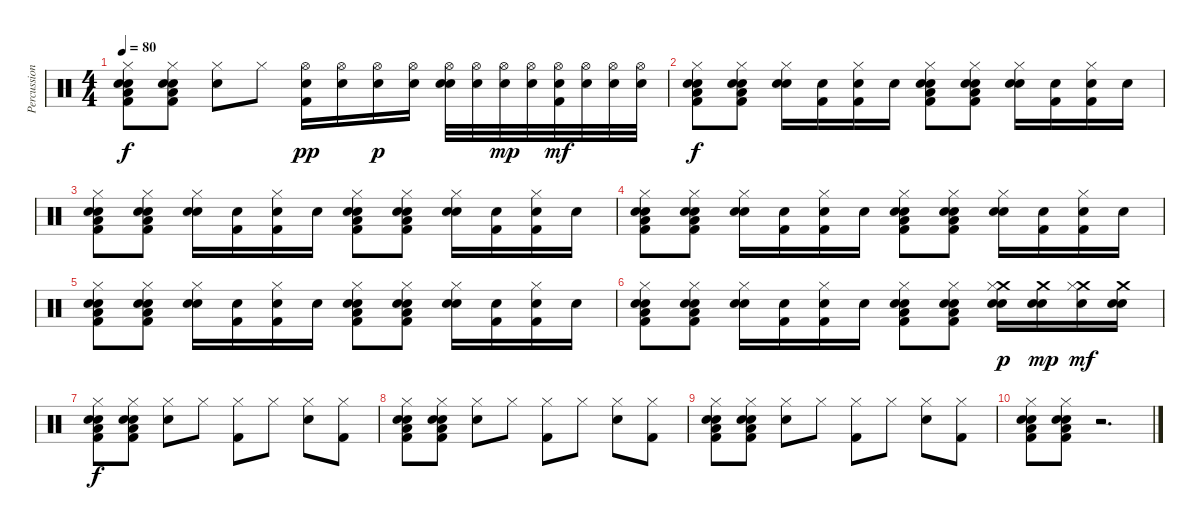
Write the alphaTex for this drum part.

\track ("Percussion" "Percussion") {instrument percussion}
\staff {score}
\articulation defaults
\ts (4 4)
\tempo 80
\clef neutral
\ks c
("Kick (hit) 2" "Low Floor Tom (hit)" "Electric Snare (hit)" "Hand Clap (hit)" "Hi-Hat (closed)").8{dy f} ("Kick (hit) 2" "Low Floor Tom (hit)" "Electric Snare (hit)" "Hand Clap (hit)" "Hi-Hat (closed)").8 ("Hand Clap (hit)" "Hi-Hat (closed)").8 "Hi-Hat (closed)".8 ("Kick (hit) 2" "Electric Snare (hit)" "Hi-Hat (open)").16{dy pp} ("Electric Snare (hit)" "Hi-Hat (open)").16 ("Electric Snare (hit)" "Hi-Hat (open)").16{dy p} ("Electric Snare (hit)" "Hi-Hat (open)").16 ("Hand Clap (hit)" "Electric Snare (hit)" "Hi-Hat (open)").32 ("Electric Snare (hit)" "Hi-Hat (open)").32 ("Electric Snare (hit)" "Hi-Hat (open)").32{dy mp} ("Electric Snare (hit)" "Hi-Hat (open)").32 ("Kick (hit) 2" "Electric Snare (hit)" "Hi-Hat (open)").32{dy mf} ("Electric Snare (hit)" "Hi-Hat (open)").32 ("Electric Snare (hit)" "Hi-Hat (open)").32 ("Electric Snare (hit)" "Hi-Hat (open)").32 |
("Kick (hit) 2" "Low Floor Tom (hit)" "Electric Snare (hit)" "Hand Clap (hit)" "Hi-Hat (closed)").8{dy f} ("Kick (hit) 2" "Low Floor Tom (hit)" "Electric Snare (hit)" "Hand Clap (hit)" "Hi-Hat (closed)").8 ("Hand Clap (hit)" "Snare (hit) 2" "Hi-Hat (closed)").16 ("Kick (hit) 2" "Hand Clap (hit)").16 ("Kick (hit) 2" "Electric Snare (hit)" "Hi-Hat (closed)").16 "Snare (hit) 2".16 ("Kick (hit) 2" "Low Floor Tom (hit)" "Electric Snare (hit)" "Hand Clap (hit)" "Hi-Hat (closed)").8 ("Kick (hit) 2" "Low Floor Tom (hit)" "Electric Snare (hit)" "Hand Clap (hit)" "Hi-Hat (closed)").8 ("Hand Clap (hit)" "Snare (hit) 2" "Hi-Hat (closed)").16 ("Kick (hit) 2" "Hand Clap (hit)").16 ("Kick (hit) 2" "Electric Snare (hit)" "Hi-Hat (closed)").16 "Snare (hit) 2".16 |
("Kick (hit) 2" "Low Floor Tom (hit)" "Electric Snare (hit)" "Hand Clap (hit)" "Hi-Hat (closed)").8 ("Kick (hit) 2" "Low Floor Tom (hit)" "Electric Snare (hit)" "Hand Clap (hit)" "Hi-Hat (closed)").8 ("Hand Clap (hit)" "Snare (hit) 2" "Hi-Hat (closed)").16 ("Kick (hit) 2" "Hand Clap (hit)").16 ("Kick (hit) 2" "Electric Snare (hit)" "Hi-Hat (closed)").16 "Snare (hit) 2".16 ("Kick (hit) 2" "Low Floor Tom (hit)" "Electric Snare (hit)" "Hand Clap (hit)" "Hi-Hat (closed)").8 ("Kick (hit) 2" "Low Floor Tom (hit)" "Electric Snare (hit)" "Hand Clap (hit)" "Hi-Hat (closed)").8 ("Hand Clap (hit)" "Snare (hit) 2" "Hi-Hat (closed)").16 ("Kick (hit) 2" "Hand Clap (hit)").16 ("Kick (hit) 2" "Electric Snare (hit)" "Hi-Hat (closed)").16 "Snare (hit) 2".16 |
("Kick (hit) 2" "Low Floor Tom (hit)" "Electric Snare (hit)" "Hand Clap (hit)" "Hi-Hat (closed)").8 ("Kick (hit) 2" "Low Floor Tom (hit)" "Electric Snare (hit)" "Hand Clap (hit)" "Hi-Hat (closed)").8 ("Hand Clap (hit)" "Snare (hit) 2" "Hi-Hat (closed)").16 ("Kick (hit) 2" "Hand Clap (hit)").16 ("Kick (hit) 2" "Electric Snare (hit)" "Hi-Hat (closed)").16 "Snare (hit) 2".16 ("Kick (hit) 2" "Low Floor Tom (hit)" "Electric Snare (hit)" "Hand Clap (hit)" "Hi-Hat (closed)").8 ("Kick (hit) 2" "Low Floor Tom (hit)" "Electric Snare (hit)" "Hand Clap (hit)" "Hi-Hat (closed)").8 ("Hand Clap (hit)" "Snare (hit) 2" "Hi-Hat (closed)").16 ("Kick (hit) 2" "Hand Clap (hit)").16 ("Kick (hit) 2" "Electric Snare (hit)" "Hi-Hat (closed)").16 "Snare (hit) 2".16 |
("Kick (hit) 2" "Low Floor Tom (hit)" "Electric Snare (hit)" "Hand Clap (hit)" "Hi-Hat (closed)").8 ("Kick (hit) 2" "Low Floor Tom (hit)" "Electric Snare (hit)" "Hand Clap (hit)" "Hi-Hat (closed)").8 ("Hand Clap (hit)" "Snare (hit) 2" "Hi-Hat (closed)").16 ("Kick (hit) 2" "Hand Clap (hit)").16 ("Kick (hit) 2" "Electric Snare (hit)" "Hi-Hat (closed)").16 "Snare (hit) 2".16 ("Kick (hit) 2" "Low Floor Tom (hit)" "Electric Snare (hit)" "Hand Clap (hit)" "Hi-Hat (closed)").8 ("Kick (hit) 2" "Low Floor Tom (hit)" "Electric Snare (hit)" "Hand Clap (hit)" "Hi-Hat (closed)").8 ("Hand Clap (hit)" "Snare (hit) 2" "Hi-Hat (closed)").16 ("Kick (hit) 2" "Hand Clap (hit)").16 ("Kick (hit) 2" "Electric Snare (hit)" "Hi-Hat (closed)").16 "Snare (hit) 2".16 |
("Kick (hit) 2" "Low Floor Tom (hit)" "Electric Snare (hit)" "Hand Clap (hit)" "Hi-Hat (closed)").8 ("Kick (hit) 2" "Low Floor Tom (hit)" "Electric Snare (hit)" "Hand Clap (hit)" "Hi-Hat (closed)").8 ("Hand Clap (hit)" "Snare (hit) 2" "Hi-Hat (closed)").16 ("Kick (hit) 2" "Hand Clap (hit)").16 ("Kick (hit) 2" "Electric Snare (hit)" "Hi-Hat (closed)").16 "Snare (hit) 2".16 ("Kick (hit) 2" "Low Floor Tom (hit)" "Electric Snare (hit)" "Hand Clap (hit)" "Hi-Hat (closed)").8 ("Kick (hit) 2" "Low Floor Tom (hit)" "Electric Snare (hit)" "Hand Clap (hit)" "Hi-Hat (closed)").8 ("Hand Clap (hit)" "Snare (hit) 2" "Crash medium (hit)" "Hi-Hat (closed)").16{dy p} ("Hand Clap (hit)" "Electric Snare (hit)" "Crash medium (hit)").16{dy mp} ("Snare (hit) 2" "Crash medium (hit)" "Hi-Hat (closed)").16{dy mf} ("Snare (hit) 2" "Electric Snare (hit)" "Crash medium (hit)").16 |
("Kick (hit) 2" "Low Floor Tom (hit)" "Electric Snare (hit)" "Hand Clap (hit)" "Hi-Hat (closed)").8{dy f} ("Kick (hit) 2" "Low Floor Tom (hit)" "Electric Snare (hit)" "Hand Clap (hit)" "Hi-Hat (closed)").8 ("Hand Clap (hit)" "Hi-Hat (closed)").8 "Hi-Hat (closed)".8 ("Kick (hit) 2" "Hi-Hat (closed)").8 "Hi-Hat (closed)".8 ("Hand Clap (hit)" "Hi-Hat (closed)").8 ("Kick (hit) 2" "Hi-Hat (closed)").8 |
("Kick (hit) 2" "Low Floor Tom (hit)" "Electric Snare (hit)" "Hand Clap (hit)" "Hi-Hat (closed)").8 ("Kick (hit) 2" "Low Floor Tom (hit)" "Electric Snare (hit)" "Hand Clap (hit)" "Hi-Hat (closed)").8 ("Hand Clap (hit)" "Hi-Hat (closed)").8 "Hi-Hat (closed)".8 ("Kick (hit) 2" "Hi-Hat (closed)").8 "Hi-Hat (closed)".8 ("Hand Clap (hit)" "Hi-Hat (closed)").8 ("Kick (hit) 2" "Hi-Hat (closed)").8 |
("Kick (hit) 2" "Low Floor Tom (hit)" "Electric Snare (hit)" "Hand Clap (hit)" "Hi-Hat (closed)").8 ("Kick (hit) 2" "Low Floor Tom (hit)" "Electric Snare (hit)" "Hand Clap (hit)" "Hi-Hat (closed)").8 ("Hand Clap (hit)" "Hi-Hat (closed)").8 "Hi-Hat (closed)".8 ("Kick (hit) 2" "Hi-Hat (closed)").8 "Hi-Hat (closed)".8 ("Hand Clap (hit)" "Hi-Hat (closed)").8 ("Kick (hit) 2" "Hi-Hat (closed)").8 |
("Kick (hit) 2" "Low Floor Tom (hit)" "Electric Snare (hit)" "Hand Clap (hit)" "Hi-Hat (closed)").8 ("Kick (hit) 2" "Low Floor Tom (hit)" "Electric Snare (hit)" "Hand Clap (hit)" "Hi-Hat (closed)").8 r.2{d}
